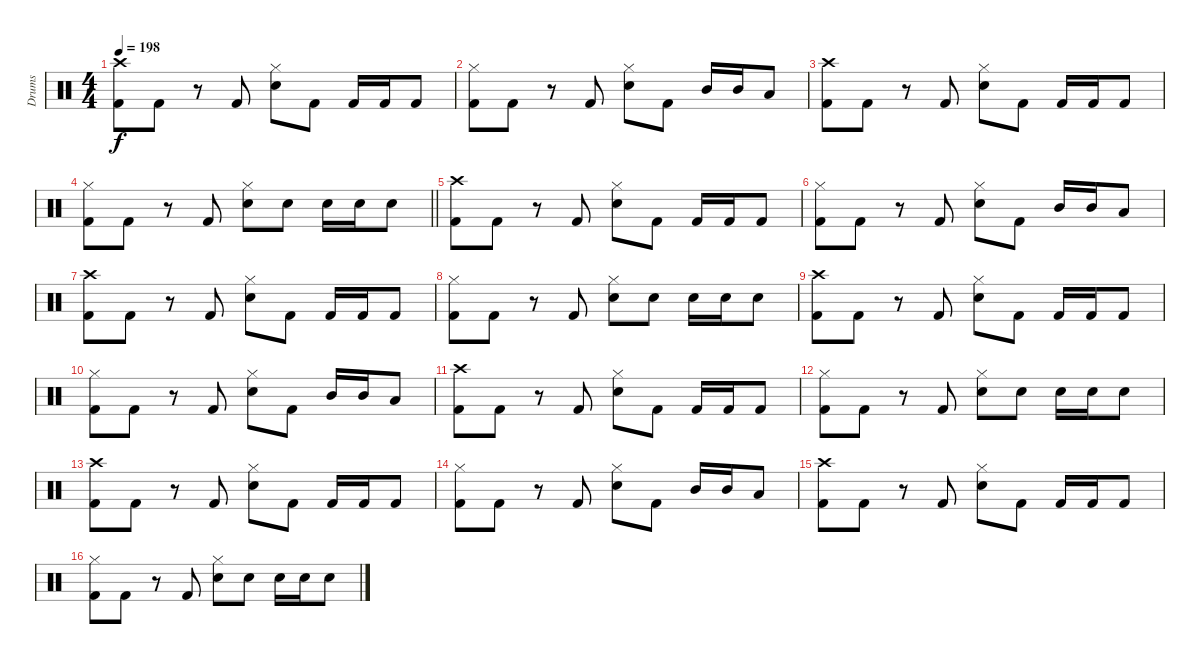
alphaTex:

\track ("Drums" "Drums") {instrument percussion}
\staff {score}
\articulation defaults
\ts (4 4)
\tempo 198
\clef neutral
\ks c
("Crash high (hit)" "Kick (hit) 2").8{dy f} "Kick (hit) 2".8 r.8 "Kick (hit) 2".8 ("Hi-Hat (closed)" "Snare (hit) 2").8 "Kick (hit) 2".8 "Kick (hit) 2".16 "Kick (hit) 2".16 "Kick (hit) 2".8 |
("Hi-Hat (closed)" "Kick (hit) 2").8 "Kick (hit) 2".8 r.8 "Kick (hit) 2".8 ("Hi-Hat (closed)" "Snare (hit) 2").8 "Kick (hit) 2".8 "Mid Tom (hit)".16 "Mid Tom (hit)".16 "Low Tom (hit)".8 |
("Crash high (hit)" "Kick (hit) 2").8 "Kick (hit) 2".8 r.8 "Kick (hit) 2".8 ("Hi-Hat (closed)" "Snare (hit) 2").8 "Kick (hit) 2".8 "Kick (hit) 2".16 "Kick (hit) 2".16 "Kick (hit) 2".8 |
\barLineRight lightlight
("Hi-Hat (closed)" "Kick (hit) 2").8 "Kick (hit) 2".8 r.8 "Kick (hit) 2".8 ("Hi-Hat (closed)" "Snare (hit) 2").8 "Snare (hit) 2".8 "Snare (hit) 2".16 "Snare (hit) 2".16 "Snare (hit) 2".8 |
("Crash high (hit)" "Kick (hit) 2").8 "Kick (hit) 2".8 r.8 "Kick (hit) 2".8 ("Hi-Hat (closed)" "Snare (hit) 2").8 "Kick (hit) 2".8 "Kick (hit) 2".16 "Kick (hit) 2".16 "Kick (hit) 2".8 |
("Hi-Hat (closed)" "Kick (hit) 2").8 "Kick (hit) 2".8 r.8 "Kick (hit) 2".8 ("Hi-Hat (closed)" "Snare (hit) 2").8 "Kick (hit) 2".8 "Mid Tom (hit)".16 "Mid Tom (hit)".16 "Low Tom (hit)".8 |
("Crash high (hit)" "Kick (hit) 2").8 "Kick (hit) 2".8 r.8 "Kick (hit) 2".8 ("Hi-Hat (closed)" "Snare (hit) 2").8 "Kick (hit) 2".8 "Kick (hit) 2".16 "Kick (hit) 2".16 "Kick (hit) 2".8 |
("Hi-Hat (closed)" "Kick (hit) 2").8 "Kick (hit) 2".8 r.8 "Kick (hit) 2".8 ("Hi-Hat (closed)" "Snare (hit) 2").8 "Snare (hit) 2".8 "Snare (hit) 2".16 "Snare (hit) 2".16 "Snare (hit) 2".8 |
("Crash high (hit)" "Kick (hit) 2").8 "Kick (hit) 2".8 r.8 "Kick (hit) 2".8 ("Hi-Hat (closed)" "Snare (hit) 2").8 "Kick (hit) 2".8 "Kick (hit) 2".16 "Kick (hit) 2".16 "Kick (hit) 2".8 |
("Hi-Hat (closed)" "Kick (hit) 2").8 "Kick (hit) 2".8 r.8 "Kick (hit) 2".8 ("Hi-Hat (closed)" "Snare (hit) 2").8 "Kick (hit) 2".8 "Mid Tom (hit)".16 "Mid Tom (hit)".16 "Low Tom (hit)".8 |
("Crash high (hit)" "Kick (hit) 2").8 "Kick (hit) 2".8 r.8 "Kick (hit) 2".8 ("Hi-Hat (closed)" "Snare (hit) 2").8 "Kick (hit) 2".8 "Kick (hit) 2".16 "Kick (hit) 2".16 "Kick (hit) 2".8 |
("Hi-Hat (closed)" "Kick (hit) 2").8 "Kick (hit) 2".8 r.8 "Kick (hit) 2".8 ("Hi-Hat (closed)" "Snare (hit) 2").8 "Snare (hit) 2".8 "Snare (hit) 2".16 "Snare (hit) 2".16 "Snare (hit) 2".8 |
("Crash high (hit)" "Kick (hit) 2").8 "Kick (hit) 2".8 r.8 "Kick (hit) 2".8 ("Hi-Hat (closed)" "Snare (hit) 2").8 "Kick (hit) 2".8 "Kick (hit) 2".16 "Kick (hit) 2".16 "Kick (hit) 2".8 |
("Hi-Hat (closed)" "Kick (hit) 2").8 "Kick (hit) 2".8 r.8 "Kick (hit) 2".8 ("Hi-Hat (closed)" "Snare (hit) 2").8 "Kick (hit) 2".8 "Mid Tom (hit)".16 "Mid Tom (hit)".16 "Low Tom (hit)".8 |
("Crash high (hit)" "Kick (hit) 2").8 "Kick (hit) 2".8 r.8 "Kick (hit) 2".8 ("Hi-Hat (closed)" "Snare (hit) 2").8 "Kick (hit) 2".8 "Kick (hit) 2".16 "Kick (hit) 2".16 "Kick (hit) 2".8 |
("Hi-Hat (closed)" "Kick (hit) 2").8 "Kick (hit) 2".8 r.8 "Kick (hit) 2".8 ("Hi-Hat (closed)" "Snare (hit) 2").8 "Snare (hit) 2".8 "Snare (hit) 2".16 "Snare (hit) 2".16 "Snare (hit) 2".8
